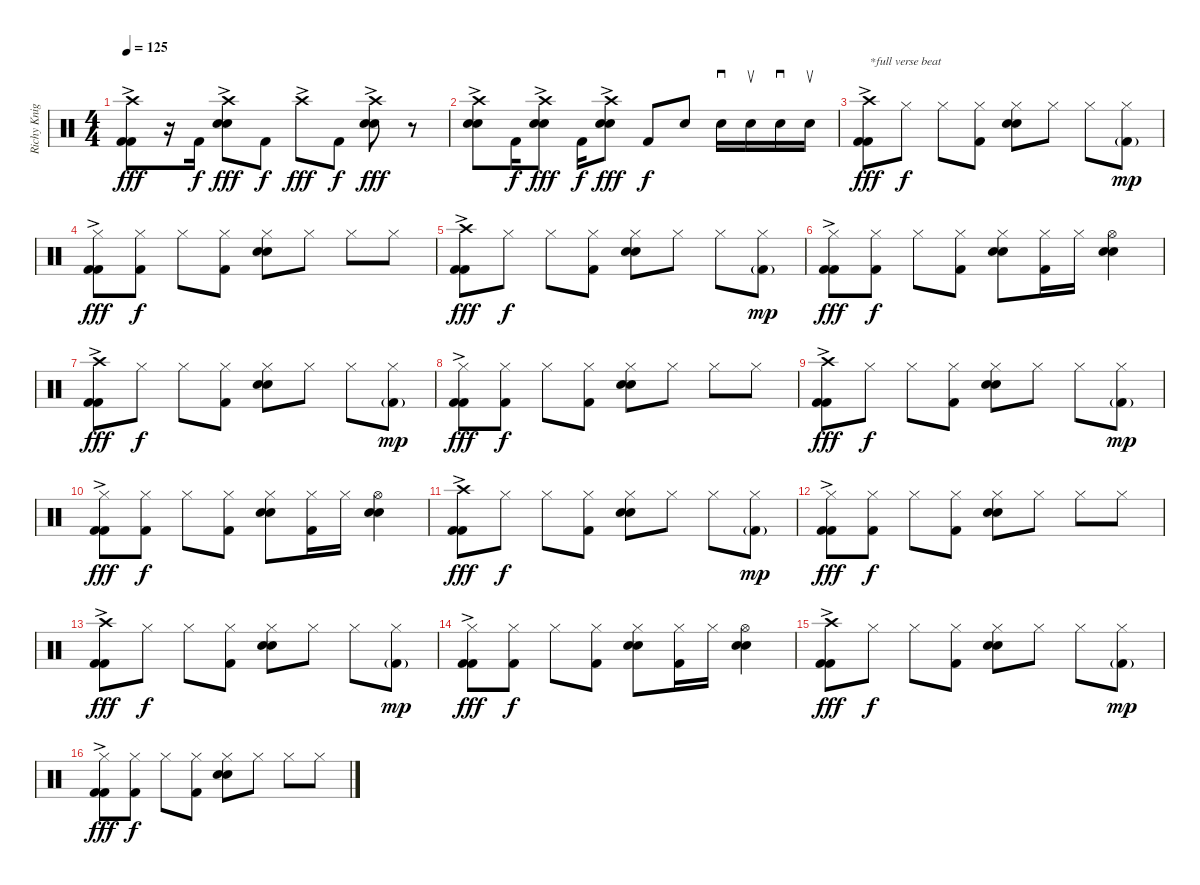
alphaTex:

\track ("Richy Knight" "Richy Knig") {instrument percussion}
\staff {score}
\articulation defaults
\ts (4 4)
\tempo 125
\clef neutral
\ks c
("Crash high (hit)"{ac} "Kick (hit) 2"{ac} "Kick (hit) 2"{ac}).8{dy fff} r.16 "Kick (hit) 2".16{dy f} ("Crash high (hit)"{ac} "Electric Snare (hit)"{ac} "Electric Snare (hit)"{ac}).8{dy fff} "Kick (hit) 2".8{dy f} "Crash high (hit)"{ac}.8{dy fff} "Kick (hit) 2".8{dy f} ("Crash high (hit)"{ac} "Electric Snare (hit)"{ac} "Electric Snare (hit)"{ac}).8{dy fff} r.8 |
("Crash high (hit)"{ac} "Electric Snare (hit)"{ac} "Electric Snare (hit)"{ac}).8 "Kick (hit) 2".16{dy f} ("Crash high (hit)"{ac} "Electric Snare (hit)"{ac} "Electric Snare (hit)"{ac}).8{dy fff} "Kick (hit) 2".16{dy f} ("Crash high (hit)"{ac} "Electric Snare (hit)"{ac} "Electric Snare (hit)"{ac}).8{dy fff} "Kick (hit) 2".8{dy f} "Electric Snare (hit)".8 "Electric Snare (hit)".16{sd} "Electric Snare (hit)".16{su} "Electric Snare (hit)".16{sd} "Electric Snare (hit)".16{su} |
("Crash high (hit)"{ac} "Kick (hit) 2" "Kick (hit) 2").8{txt "*full verse beat" dy fff} "Hi-Hat (closed)".8{dy f} "Hi-Hat (closed)".8 ("Hi-Hat (closed)" "Kick (hit) 2").8 ("Hi-Hat (closed)" "Electric Snare (hit)" "Electric Snare (hit)").8 "Hi-Hat (closed)".8 "Hi-Hat (closed)".8 ("Hi-Hat (closed)" "Kick (hit) 2"{g}).8{dy mp} |
("Hi-Hat (closed)"{ac} "Kick (hit) 2" "Kick (hit) 2").8{dy fff} ("Hi-Hat (closed)" "Kick (hit) 2").8{dy f} "Hi-Hat (closed)".8 ("Hi-Hat (closed)" "Kick (hit) 2").8 ("Hi-Hat (closed)" "Electric Snare (hit)" "Electric Snare (hit)").8 "Hi-Hat (closed)".8 "Hi-Hat (closed)".8 "Hi-Hat (closed)".8 |
("Crash high (hit)"{ac} "Kick (hit) 2" "Kick (hit) 2").8{dy fff} "Hi-Hat (closed)".8{dy f} "Hi-Hat (closed)".8 ("Hi-Hat (closed)" "Kick (hit) 2").8 ("Hi-Hat (closed)" "Electric Snare (hit)" "Electric Snare (hit)").8 "Hi-Hat (closed)".8 "Hi-Hat (closed)".8 ("Hi-Hat (closed)" "Kick (hit) 2"{g}).8{dy mp} |
("Hi-Hat (closed)"{ac} "Kick (hit) 2" "Kick (hit) 2").8{dy fff} ("Hi-Hat (closed)" "Kick (hit) 2").8{dy f} "Hi-Hat (closed)".8 ("Hi-Hat (closed)" "Kick (hit) 2").8 ("Hi-Hat (closed)" "Electric Snare (hit)" "Electric Snare (hit)").8 ("Hi-Hat (closed)" "Kick (hit) 2").16 "Hi-Hat (closed)".16 ("Hi-Hat (open)" "Electric Snare (hit)" "Electric Snare (hit)").4 |
("Crash high (hit)"{ac} "Kick (hit) 2" "Kick (hit) 2").8{dy fff} "Hi-Hat (closed)".8{dy f} "Hi-Hat (closed)".8 ("Hi-Hat (closed)" "Kick (hit) 2").8 ("Hi-Hat (closed)" "Electric Snare (hit)" "Electric Snare (hit)").8 "Hi-Hat (closed)".8 "Hi-Hat (closed)".8 ("Hi-Hat (closed)" "Kick (hit) 2"{g}).8{dy mp} |
("Hi-Hat (closed)"{ac} "Kick (hit) 2" "Kick (hit) 2").8{dy fff} ("Hi-Hat (closed)" "Kick (hit) 2").8{dy f} "Hi-Hat (closed)".8 ("Hi-Hat (closed)" "Kick (hit) 2").8 ("Hi-Hat (closed)" "Electric Snare (hit)" "Electric Snare (hit)").8 "Hi-Hat (closed)".8 "Hi-Hat (closed)".8 "Hi-Hat (closed)".8 |
("Crash high (hit)"{ac} "Kick (hit) 2" "Kick (hit) 2").8{dy fff} "Hi-Hat (closed)".8{dy f} "Hi-Hat (closed)".8 ("Hi-Hat (closed)" "Kick (hit) 2").8 ("Hi-Hat (closed)" "Electric Snare (hit)" "Electric Snare (hit)").8 "Hi-Hat (closed)".8 "Hi-Hat (closed)".8 ("Hi-Hat (closed)" "Kick (hit) 2"{g}).8{dy mp} |
("Hi-Hat (closed)"{ac} "Kick (hit) 2" "Kick (hit) 2").8{dy fff} ("Hi-Hat (closed)" "Kick (hit) 2").8{dy f} "Hi-Hat (closed)".8 ("Hi-Hat (closed)" "Kick (hit) 2").8 ("Hi-Hat (closed)" "Electric Snare (hit)" "Electric Snare (hit)").8 ("Hi-Hat (closed)" "Kick (hit) 2").16 "Hi-Hat (closed)".16 ("Hi-Hat (open)" "Electric Snare (hit)" "Electric Snare (hit)").4 |
("Crash high (hit)"{ac} "Kick (hit) 2" "Kick (hit) 2").8{dy fff} "Hi-Hat (closed)".8{dy f} "Hi-Hat (closed)".8 ("Hi-Hat (closed)" "Kick (hit) 2").8 ("Hi-Hat (closed)" "Electric Snare (hit)" "Electric Snare (hit)").8 "Hi-Hat (closed)".8 "Hi-Hat (closed)".8 ("Hi-Hat (closed)" "Kick (hit) 2"{g}).8{dy mp} |
("Hi-Hat (closed)"{ac} "Kick (hit) 2" "Kick (hit) 2").8{dy fff} ("Hi-Hat (closed)" "Kick (hit) 2").8{dy f} "Hi-Hat (closed)".8 ("Hi-Hat (closed)" "Kick (hit) 2").8 ("Hi-Hat (closed)" "Electric Snare (hit)" "Electric Snare (hit)").8 "Hi-Hat (closed)".8 "Hi-Hat (closed)".8 "Hi-Hat (closed)".8 |
("Crash high (hit)"{ac} "Kick (hit) 2" "Kick (hit) 2").8{dy fff} "Hi-Hat (closed)".8{dy f} "Hi-Hat (closed)".8 ("Hi-Hat (closed)" "Kick (hit) 2").8 ("Hi-Hat (closed)" "Electric Snare (hit)" "Electric Snare (hit)").8 "Hi-Hat (closed)".8 "Hi-Hat (closed)".8 ("Hi-Hat (closed)" "Kick (hit) 2"{g}).8{dy mp} |
("Hi-Hat (closed)"{ac} "Kick (hit) 2" "Kick (hit) 2").8{dy fff} ("Hi-Hat (closed)" "Kick (hit) 2").8{dy f} "Hi-Hat (closed)".8 ("Hi-Hat (closed)" "Kick (hit) 2").8 ("Hi-Hat (closed)" "Electric Snare (hit)" "Electric Snare (hit)").8 ("Hi-Hat (closed)" "Kick (hit) 2").16 "Hi-Hat (closed)".16 ("Hi-Hat (open)" "Electric Snare (hit)" "Electric Snare (hit)").4 |
("Crash high (hit)"{ac} "Kick (hit) 2" "Kick (hit) 2").8{dy fff} "Hi-Hat (closed)".8{dy f} "Hi-Hat (closed)".8 ("Hi-Hat (closed)" "Kick (hit) 2").8 ("Hi-Hat (closed)" "Electric Snare (hit)" "Electric Snare (hit)").8 "Hi-Hat (closed)".8 "Hi-Hat (closed)".8 ("Hi-Hat (closed)" "Kick (hit) 2"{g}).8{dy mp} |
("Hi-Hat (closed)"{ac} "Kick (hit) 2" "Kick (hit) 2").8{dy fff} ("Hi-Hat (closed)" "Kick (hit) 2").8{dy f} "Hi-Hat (closed)".8 ("Hi-Hat (closed)" "Kick (hit) 2").8 ("Hi-Hat (closed)" "Electric Snare (hit)" "Electric Snare (hit)").8 "Hi-Hat (closed)".8 "Hi-Hat (closed)".8 "Hi-Hat (closed)".8
